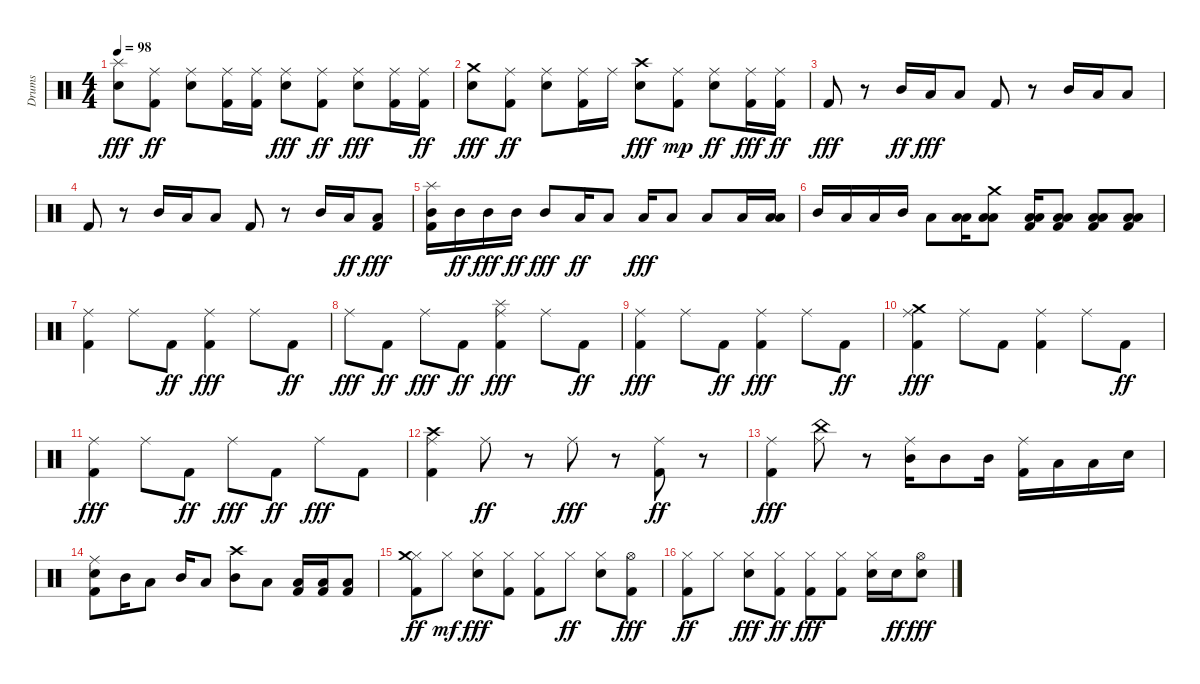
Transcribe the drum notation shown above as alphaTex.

\track ("Drums" "Drums") {instrument percussion}
\staff {score}
\articulation defaults
\ts (4 4)
\tempo 98
\clef neutral
\ks c
("Snare (hit) 2" "Splash (hit)").8{dy fff} ("Kick (hit) 2" "Ride (middle)").8{dy ff} ("Snare (hit) 2" "Ride (middle)").8 ("Kick (hit) 2" "Ride (middle)").16 ("Kick (hit) 2" "Ride (middle)").16 ("Snare (hit) 2" "Ride (middle)").8{dy fff} ("Kick (hit) 2" "Ride (middle)").8{dy ff} ("Snare (hit) 2" "Ride (middle)").8{dy fff} ("Kick (hit) 2" "Ride (middle)").16 ("Kick (hit) 2" "Ride (middle)").16{dy ff} |
("Snare (hit) 2" "Crash medium (hit)").8{dy fff} ("Kick (hit) 2" "Ride (middle)").8{dy ff} ("Snare (hit) 2" "Ride (middle)").8 ("Kick (hit) 2" "Ride (middle)").16 "Ride (middle)".16 ("Snare (hit) 2" "Crash high (hit)").8{dy fff} ("Kick (hit) 2" "Ride (middle)").8{dy mp} ("Snare (hit) 2" "Ride (middle)").8{dy ff} ("Kick (hit) 2" "Ride (middle)").16{dy fff} ("Kick (hit) 2" "Ride (middle)").16{dy ff} |
"Kick (hit) 2".8{dy fff} r.8 "Mid Tom (hit)".16{dy ff} "Low Tom (hit)".16{dy fff} "Low Floor Tom (hit)".8 "Kick (hit) 2".8 r.8 "Mid Tom (hit)".16 "Low Tom (hit)".16 "Low Floor Tom (hit)".8 |
"Kick (hit) 2".8 r.8 "Mid Tom (hit)".16 "Low Tom (hit)".16 "Low Floor Tom (hit)".8 "Kick (hit) 2".8 r.8 "Mid Tom (hit)".16 "Low Tom (hit)".16{dy ff} ("Kick (hit) 2" "Low Floor Tom (hit)").8{dy fff} |
("Kick (hit) 2" "Mid Tom (hit)" "Splash (hit)").16 "Mid Tom (hit)".16{dy ff} "Mid Tom (hit)".16{dy fff} "Mid Tom (hit)".16{dy ff} "Mid Tom (hit)".8{dy fff} "Low Tom (hit)".16{dy ff} "Low Tom (hit)".8 "Low Tom (hit)".16{dy fff} "Low Tom (hit)".8 "Low Tom (hit)".8 "Low Tom (hit)".16 ("Low Tom (hit)" "Low Floor Tom (hit)").16 |
"Mid Tom (hit)".16 "Low Tom (hit)".16 "Low Floor Tom (hit)".16 "Mid Tom (hit)".16 "Low Floor Tom (hit)".8 ("Low Floor Tom (hit)" "Low Tom (hit)").16 ("Low Floor Tom (hit)" "Low Tom (hit)" "Crash medium (hit)").8 ("Kick (hit) 2" "Low Floor Tom (hit)" "Low Tom (hit)").16 ("Kick (hit) 2" "Low Floor Tom (hit)" "Low Tom (hit)").8 ("Kick (hit) 2" "Low Floor Tom (hit)" "Low Tom (hit)").8 ("Kick (hit) 2" "Low Floor Tom (hit)" "Low Tom (hit)").8 |
("Kick (hit) 2" "Ride (middle)").4 "Ride (middle)".8 "Kick (hit) 2".8{dy ff} ("Kick (hit) 2" "Ride (middle)").4{dy fff} "Ride (middle)".8 "Kick (hit) 2".8{dy ff} |
"Ride (middle)".8{dy fff} "Kick (hit) 2".8{dy ff} "Ride (middle)".8{dy fff} "Kick (hit) 2".8{dy ff} ("Kick (hit) 2" "Ride (middle)" "Splash (hit)").4{dy fff} "Ride (middle)".8 "Kick (hit) 2".8{dy ff} |
("Kick (hit) 2" "Ride (middle)").4{dy fff} "Ride (middle)".8 "Kick (hit) 2".8{dy ff} ("Kick (hit) 2" "Ride (middle)").4{dy fff} "Ride (middle)".8 "Kick (hit) 2".8{dy ff} |
("Kick (hit) 2" "Ride (middle)" "Crash medium (hit)").4{dy fff} "Ride (middle)".8 "Kick (hit) 2".8 ("Kick (hit) 2" "Ride (middle)").4 "Ride (middle)".8 "Kick (hit) 2".8{dy ff} |
("Kick (hit) 2" "Ride (middle)").4{dy fff} "Ride (middle)".8 "Kick (hit) 2".8{dy ff} "Ride (middle)".8{dy fff} "Kick (hit) 2".8{dy ff} "Ride (middle)".8{dy fff} "Kick (hit) 2".8 |
("Crash high (hit)" "Kick (hit) 2" "Ride (middle)").4 "Ride (middle)".8{dy ff} r.8 "Ride (middle)".8{dy fff} r.8 ("Kick (hit) 2" "Ride (middle)").8{dy ff} r.8 |
("Kick (hit) 2" "Ride (middle)").4{dy fff} ("Ride (middle)" "China (hit)").8 r.8 ("Mid Tom (hit)" "Ride (middle)").16 "Mid Tom (hit)".8 "Mid Tom (hit)".16 ("Kick (hit) 2" "Ride (middle)").16 "Low Tom (hit)".16 "Low Floor Tom (hit)".16 "Snare (hit) 2".16 |
("Kick (hit) 2" "Snare (hit) 2" "Ride (middle)").8 "Mid Tom (hit)".16 "Low Tom (hit)".8 "Mid Tom (hit)".16 "Low Tom (hit)".8 ("Mid Tom (hit)" "Crash high (hit)").8 "Low Tom (hit)".8 ("Kick (hit) 2" "Low Tom (hit)").16 ("Kick (hit) 2" "Low Floor Tom (hit)").16 ("Kick (hit) 2" "Low Floor Tom (hit)").8 |
("Kick (hit) 2" "Hi-Hat (closed)" "Crash medium (hit)").8{dy ff} "Hi-Hat (closed)".8{dy mf} ("Snare (hit) 2" "Hi-Hat (closed)").8{dy fff} ("Kick (hit) 2" "Hi-Hat (closed)").8 ("Kick (hit) 2" "Hi-Hat (closed)").8 "Hi-Hat (closed)".8{dy ff} ("Snare (hit) 2" "Hi-Hat (closed)").8 ("Kick (hit) 2" "Hi-Hat (open)").8{dy fff} |
("Kick (hit) 2" "Hi-Hat (closed)").8{dy ff} "Hi-Hat (closed)".8 ("Snare (hit) 2" "Hi-Hat (closed)").8{dy fff} ("Kick (hit) 2" "Hi-Hat (closed)").8{dy ff} ("Kick (hit) 2" "Hi-Hat (closed)").8{dy fff} ("Kick (hit) 2" "Hi-Hat (closed)").8 ("Snare (hit) 2" "Hi-Hat (closed)").16 "Snare (hit) 2".16{dy ff} ("Snare (hit) 2" "Hi-Hat (open)").8{dy fff}
